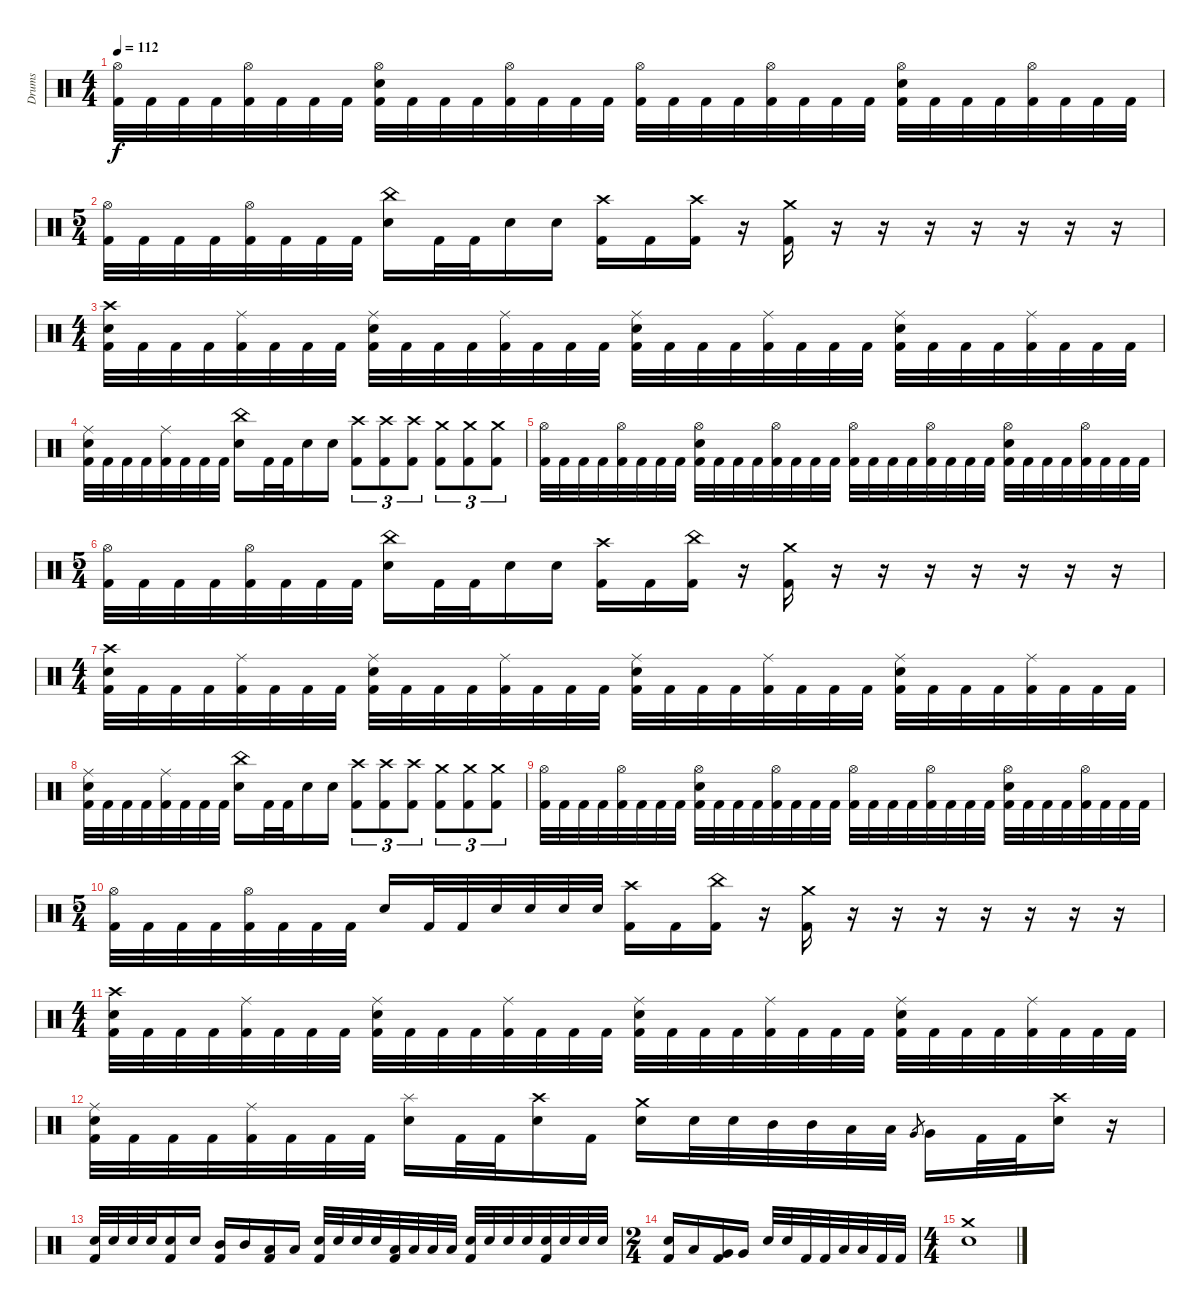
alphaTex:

\track ("Drums" "Drums") {instrument percussion}
\staff {score}
\articulation defaults
\ts (4 4)
\tempo 112
\clef neutral
\ks c
("Hi-Hat (open)" "Kick (hit) 2").32{dy f} "Kick (hit) 2".32 "Kick (hit) 2".32 "Kick (hit) 2".32 ("Hi-Hat (open)" "Kick (hit) 2").32 "Kick (hit) 2".32 "Kick (hit) 2".32 "Kick (hit) 2".32 ("Hi-Hat (open)" "Snare (hit) 2" "Kick (hit) 2").32 "Kick (hit) 2".32 "Kick (hit) 2".32 "Kick (hit) 2".32 ("Hi-Hat (open)" "Kick (hit) 2").32 "Kick (hit) 2".32 "Kick (hit) 2".32 "Kick (hit) 2".32 ("Hi-Hat (open)" "Kick (hit) 2").32 "Kick (hit) 2".32 "Kick (hit) 2".32 "Kick (hit) 2".32 ("Hi-Hat (open)" "Kick (hit) 2").32 "Kick (hit) 2".32 "Kick (hit) 2".32 "Kick (hit) 2".32 ("Hi-Hat (open)" "Snare (hit) 2" "Kick (hit) 2").32 "Kick (hit) 2".32 "Kick (hit) 2".32 "Kick (hit) 2".32 ("Hi-Hat (open)" "Kick (hit) 2").32 "Kick (hit) 2".32 "Kick (hit) 2".32 "Kick (hit) 2".32 |
\ts (5 4)
("Hi-Hat (open)" "Kick (hit) 2").32 "Kick (hit) 2".32 "Kick (hit) 2".32 "Kick (hit) 2".32 ("Hi-Hat (open)" "Kick (hit) 2").32 "Kick (hit) 2".32 "Kick (hit) 2".32 "Kick (hit) 2".32 ("China (hit)" "Snare (hit) 2").16 "Kick (hit) 2".32 "Kick (hit) 2".32 "Snare (hit) 2".16 "Snare (hit) 2".16 ("Crash high (hit)" "Kick (hit) 2").16 "Kick (hit) 2".16 ("Crash high (hit)" "Kick (hit) 2").16 r.16 ("Crash medium (hit)" "Kick (hit) 2").16 r.16 r.16 r.16 r.16 r.16 r.16 r.16 |
\ts (4 4)
("Crash high (hit)" "Snare (hit) 2" "Kick (hit) 2").32 "Kick (hit) 2".32 "Kick (hit) 2".32 "Kick (hit) 2".32 ("Ride (middle)" "Kick (hit) 2").32 "Kick (hit) 2".32 "Kick (hit) 2".32 "Kick (hit) 2".32 ("Ride (middle)" "Snare (hit) 2" "Kick (hit) 2").32 "Kick (hit) 2".32 "Kick (hit) 2".32 "Kick (hit) 2".32 ("Ride (middle)" "Kick (hit) 2").32 "Kick (hit) 2".32 "Kick (hit) 2".32 "Kick (hit) 2".32 ("Ride (middle)" "Snare (hit) 2" "Kick (hit) 2").32 "Kick (hit) 2".32 "Kick (hit) 2".32 "Kick (hit) 2".32 ("Ride (middle)" "Kick (hit) 2").32 "Kick (hit) 2".32 "Kick (hit) 2".32 "Kick (hit) 2".32 ("Ride (middle)" "Snare (hit) 2" "Kick (hit) 2").32 "Kick (hit) 2".32 "Kick (hit) 2".32 "Kick (hit) 2".32 ("Ride (middle)" "Kick (hit) 2").32 "Kick (hit) 2".32 "Kick (hit) 2".32 "Kick (hit) 2".32 |
("Ride (middle)" "Snare (hit) 2" "Kick (hit) 2").32 "Kick (hit) 2".32 "Kick (hit) 2".32 "Kick (hit) 2".32 ("Ride (middle)" "Kick (hit) 2").32 "Kick (hit) 2".32 "Kick (hit) 2".32 "Kick (hit) 2".32 ("China (hit)" "Snare (hit) 2").16 "Kick (hit) 2".32 "Kick (hit) 2".32 "Snare (hit) 2".16 "Snare (hit) 2".16 ("Crash high (hit)" "Kick (hit) 2").8{tu (3 2)} ("Crash high (hit)" "Kick (hit) 2").8{tu (3 2)} ("Crash high (hit)" "Kick (hit) 2").8{tu (3 2)} ("Crash medium (hit)" "Kick (hit) 2").8{tu (3 2)} ("Crash medium (hit)" "Kick (hit) 2").8{tu (3 2)} ("Crash medium (hit)" "Kick (hit) 2").8{tu (3 2)} |
("Hi-Hat (open)" "Kick (hit) 2").32 "Kick (hit) 2".32 "Kick (hit) 2".32 "Kick (hit) 2".32 ("Hi-Hat (open)" "Kick (hit) 2").32 "Kick (hit) 2".32 "Kick (hit) 2".32 "Kick (hit) 2".32 ("Hi-Hat (open)" "Snare (hit) 2" "Kick (hit) 2").32 "Kick (hit) 2".32 "Kick (hit) 2".32 "Kick (hit) 2".32 ("Hi-Hat (open)" "Kick (hit) 2").32 "Kick (hit) 2".32 "Kick (hit) 2".32 "Kick (hit) 2".32 ("Hi-Hat (open)" "Kick (hit) 2").32 "Kick (hit) 2".32 "Kick (hit) 2".32 "Kick (hit) 2".32 ("Hi-Hat (open)" "Kick (hit) 2").32 "Kick (hit) 2".32 "Kick (hit) 2".32 "Kick (hit) 2".32 ("Hi-Hat (open)" "Snare (hit) 2" "Kick (hit) 2").32 "Kick (hit) 2".32 "Kick (hit) 2".32 "Kick (hit) 2".32 ("Hi-Hat (open)" "Kick (hit) 2").32 "Kick (hit) 2".32 "Kick (hit) 2".32 "Kick (hit) 2".32 |
\ts (5 4)
("Hi-Hat (open)" "Kick (hit) 2").32 "Kick (hit) 2".32 "Kick (hit) 2".32 "Kick (hit) 2".32 ("Hi-Hat (open)" "Kick (hit) 2").32 "Kick (hit) 2".32 "Kick (hit) 2".32 "Kick (hit) 2".32 ("China (hit)" "Snare (hit) 2").16 "Kick (hit) 2".32 "Kick (hit) 2".32 "Snare (hit) 2".16 "Snare (hit) 2".16 ("Crash high (hit)" "Kick (hit) 2").16 "Kick (hit) 2".16 ("China (hit)" "Kick (hit) 2").16 r.16 ("Crash medium (hit)" "Kick (hit) 2").16 r.16 r.16 r.16 r.16 r.16 r.16 r.16 |
\ts (4 4)
("Crash high (hit)" "Snare (hit) 2" "Kick (hit) 2").32 "Kick (hit) 2".32 "Kick (hit) 2".32 "Kick (hit) 2".32 ("Ride (middle)" "Kick (hit) 2").32 "Kick (hit) 2".32 "Kick (hit) 2".32 "Kick (hit) 2".32 ("Ride (middle)" "Snare (hit) 2" "Kick (hit) 2").32 "Kick (hit) 2".32 "Kick (hit) 2".32 "Kick (hit) 2".32 ("Ride (middle)" "Kick (hit) 2").32 "Kick (hit) 2".32 "Kick (hit) 2".32 "Kick (hit) 2".32 ("Ride (middle)" "Snare (hit) 2" "Kick (hit) 2").32 "Kick (hit) 2".32 "Kick (hit) 2".32 "Kick (hit) 2".32 ("Ride (middle)" "Kick (hit) 2").32 "Kick (hit) 2".32 "Kick (hit) 2".32 "Kick (hit) 2".32 ("Ride (middle)" "Snare (hit) 2" "Kick (hit) 2").32 "Kick (hit) 2".32 "Kick (hit) 2".32 "Kick (hit) 2".32 ("Ride (middle)" "Kick (hit) 2").32 "Kick (hit) 2".32 "Kick (hit) 2".32 "Kick (hit) 2".32 |
("Ride (middle)" "Snare (hit) 2" "Kick (hit) 2").32 "Kick (hit) 2".32 "Kick (hit) 2".32 "Kick (hit) 2".32 ("Ride (middle)" "Kick (hit) 2").32 "Kick (hit) 2".32 "Kick (hit) 2".32 "Kick (hit) 2".32 ("China (hit)" "Snare (hit) 2").16 "Kick (hit) 2".32 "Kick (hit) 2".32 "Snare (hit) 2".16 "Snare (hit) 2".16 ("Crash high (hit)" "Kick (hit) 2").8{tu (3 2)} ("Crash high (hit)" "Kick (hit) 2").8{tu (3 2)} ("Crash high (hit)" "Kick (hit) 2").8{tu (3 2)} ("Crash medium (hit)" "Kick (hit) 2").8{tu (3 2)} ("Crash medium (hit)" "Kick (hit) 2").8{tu (3 2)} ("Crash medium (hit)" "Kick (hit) 2").8{tu (3 2)} |
("Hi-Hat (open)" "Kick (hit) 2").32 "Kick (hit) 2".32 "Kick (hit) 2".32 "Kick (hit) 2".32 ("Hi-Hat (open)" "Kick (hit) 2").32 "Kick (hit) 2".32 "Kick (hit) 2".32 "Kick (hit) 2".32 ("Hi-Hat (open)" "Snare (hit) 2" "Kick (hit) 2").32 "Kick (hit) 2".32 "Kick (hit) 2".32 "Kick (hit) 2".32 ("Hi-Hat (open)" "Kick (hit) 2").32 "Kick (hit) 2".32 "Kick (hit) 2".32 "Kick (hit) 2".32 ("Hi-Hat (open)" "Kick (hit) 2").32 "Kick (hit) 2".32 "Kick (hit) 2".32 "Kick (hit) 2".32 ("Hi-Hat (open)" "Kick (hit) 2").32 "Kick (hit) 2".32 "Kick (hit) 2".32 "Kick (hit) 2".32 ("Hi-Hat (open)" "Snare (hit) 2" "Kick (hit) 2").32 "Kick (hit) 2".32 "Kick (hit) 2".32 "Kick (hit) 2".32 ("Hi-Hat (open)" "Kick (hit) 2").32 "Kick (hit) 2".32 "Kick (hit) 2".32 "Kick (hit) 2".32 |
\ts (5 4)
("Hi-Hat (open)" "Kick (hit) 2").32 "Kick (hit) 2".32 "Kick (hit) 2".32 "Kick (hit) 2".32 ("Hi-Hat (open)" "Kick (hit) 2").32 "Kick (hit) 2".32 "Kick (hit) 2".32 "Kick (hit) 2".32 "Snare (hit) 2".16 "Kick (hit) 2".32 "Kick (hit) 2".32 "Snare (hit) 2".32 "Snare (hit) 2".32 "Snare (hit) 2".32 "Snare (hit) 2".32 ("Crash high (hit)" "Kick (hit) 2").16 "Kick (hit) 2".16 ("China (hit)" "Kick (hit) 2").16 r.16 ("Crash medium (hit)" "Kick (hit) 2").16 r.16 r.16 r.16 r.16 r.16 r.16 r.16 |
\ts (4 4)
("Crash high (hit)" "Snare (hit) 2" "Kick (hit) 2").32 "Kick (hit) 2".32 "Kick (hit) 2".32 "Kick (hit) 2".32 ("Ride (middle)" "Kick (hit) 2").32 "Kick (hit) 2".32 "Kick (hit) 2".32 "Kick (hit) 2".32 ("Ride (middle)" "Snare (hit) 2" "Kick (hit) 2").32 "Kick (hit) 2".32 "Kick (hit) 2".32 "Kick (hit) 2".32 ("Ride (middle)" "Kick (hit) 2").32 "Kick (hit) 2".32 "Kick (hit) 2".32 "Kick (hit) 2".32 ("Ride (middle)" "Snare (hit) 2" "Kick (hit) 2").32 "Kick (hit) 2".32 "Kick (hit) 2".32 "Kick (hit) 2".32 ("Ride (middle)" "Kick (hit) 2").32 "Kick (hit) 2".32 "Kick (hit) 2".32 "Kick (hit) 2".32 ("Ride (middle)" "Snare (hit) 2" "Kick (hit) 2").32 "Kick (hit) 2".32 "Kick (hit) 2".32 "Kick (hit) 2".32 ("Ride (middle)" "Kick (hit) 2").32 "Kick (hit) 2".32 "Kick (hit) 2".32 "Kick (hit) 2".32 |
("Ride (middle)" "Snare (hit) 2" "Kick (hit) 2").32 "Kick (hit) 2".32 "Kick (hit) 2".32 "Kick (hit) 2".32 ("Ride (middle)" "Kick (hit) 2").32 "Kick (hit) 2".32 "Kick (hit) 2".32 "Kick (hit) 2".32 ("Splash (hit)" "Snare (hit) 2").16 "Kick (hit) 2".32 "Kick (hit) 2".32 ("Crash high (hit)" "Snare (hit) 2").16 "Kick (hit) 2".16 ("Crash medium (hit)" "Snare (hit) 2").16 "Snare (hit) 2".32 "Snare (hit) 2".32 "Mid Tom (hit)".32 "Mid Tom (hit)".32 "Low Tom (hit)".32 "Low Tom (hit)".32 "Very Low Tom (hit)".8{gr} "Very Low Tom (hit)".16 "Kick (hit) 2".32 "Kick (hit) 2".32 ("Crash high (hit)" "Snare (hit) 2").16 r.16 |
("Snare (hit) 2" "Kick (hit) 2").32 "Snare (hit) 2".32 "Snare (hit) 2".32 "Snare (hit) 2".32 ("Snare (hit) 2" "Kick (hit) 2").16 "Snare (hit) 2".16 ("Mid Tom (hit)" "Kick (hit) 2").16 "Mid Tom (hit)".16 ("Low Tom (hit)" "Kick (hit) 2").16 "Low Tom (hit)".16 ("Snare (hit) 2" "Kick (hit) 2").32 "Snare (hit) 2".32 "Snare (hit) 2".32 "Snare (hit) 2".32 ("Low Tom (hit)" "Kick (hit) 2").32 "Low Tom (hit)".32 "Low Tom (hit)".32 "Low Tom (hit)".32 ("Snare (hit) 2" "Kick (hit) 2").32 "Snare (hit) 2".32 "Snare (hit) 2".32 "Snare (hit) 2".32 ("Snare (hit) 2" "Kick (hit) 2").32 "Snare (hit) 2".32 "Snare (hit) 2".32 "Snare (hit) 2".32 |
\ts (2 4)
("Snare (hit) 2" "Kick (hit) 2").16 "Low Tom (hit)".16 ("Very Low Tom (hit)" "Kick (hit) 2").16 "Very Low Tom (hit)".16 "Snare (hit) 2".32 "Snare (hit) 2".32 "Kick (hit) 2".32 "Kick (hit) 2".32 "Low Tom (hit)".32 "Low Tom (hit)".32 "Kick (hit) 2".32 "Kick (hit) 2".32 |
\ts (4 4)
("Crash medium (hit)" "Snare (hit) 2").1
